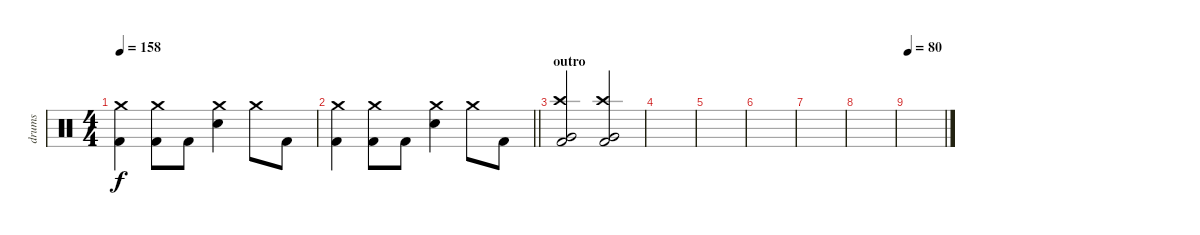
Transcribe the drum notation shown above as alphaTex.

\track ("drums" "drums") {instrument percussion}
\staff {score}
\articulation defaults
\ts (4 4)
\tempo 158
\clef neutral
\ks c
("Crash medium (hit)" "Kick (hit) 2").4{dy f} ("Crash medium (hit)" "Kick (hit) 2").8 "Kick (hit) 2".8 ("Crash medium (hit)" "Electric Snare (hit)").4 "Crash medium (hit)".8 "Kick (hit) 2".8 |
\barLineRight lightlight
("Crash medium (hit)" "Kick (hit) 2").4 ("Crash medium (hit)" "Kick (hit) 2").8 "Kick (hit) 2".8 ("Crash medium (hit)" "Electric Snare (hit)").4 "Crash medium (hit)".8 "Kick (hit) 2".8 |
\section ("" "outro")
("Crash high (hit)" "Very Low Tom (hit)" "Kick (hit) 2").2 ("Crash high (hit)" "Very Low Tom (hit)" "Kick (hit) 2").2 |
|
|
|
|
|
\tempo 80
